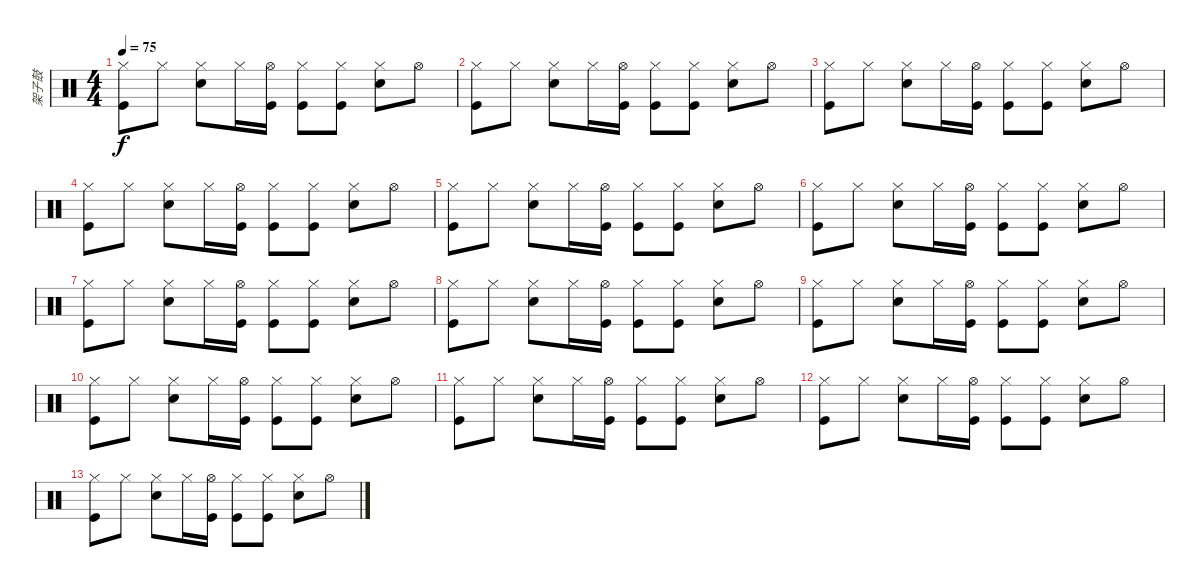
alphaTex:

\track ("架子鼓" "架子鼓") {instrument percussion}
\staff {score}
\articulation defaults
\ts (4 4)
\tempo 75
\clef neutral
\ks c
("Hi-Hat (closed)" "Kick (hit)").8{dy f} "Hi-Hat (closed)".8 ("Hi-Hat (closed)" "Snare (hit) 2").8 "Hi-Hat (closed)".16 ("Hi-Hat (open)" "Kick (hit)").16 ("Hi-Hat (closed)" "Kick (hit)").8 ("Hi-Hat (closed)" "Kick (hit)").8 ("Hi-Hat (closed)" "Snare (hit) 2").8 "Hi-Hat (open)".8 |
("Hi-Hat (closed)" "Kick (hit)").8 "Hi-Hat (closed)".8 ("Hi-Hat (closed)" "Snare (hit) 2").8 "Hi-Hat (closed)".16 ("Hi-Hat (open)" "Kick (hit)").16 ("Hi-Hat (closed)" "Kick (hit)").8 ("Hi-Hat (closed)" "Kick (hit)").8 ("Hi-Hat (closed)" "Snare (hit) 2").8 "Hi-Hat (open)".8 |
("Hi-Hat (closed)" "Kick (hit)").8 "Hi-Hat (closed)".8 ("Hi-Hat (closed)" "Snare (hit) 2").8 "Hi-Hat (closed)".16 ("Hi-Hat (open)" "Kick (hit)").16 ("Hi-Hat (closed)" "Kick (hit)").8 ("Hi-Hat (closed)" "Kick (hit)").8 ("Hi-Hat (closed)" "Snare (hit) 2").8 "Hi-Hat (open)".8 |
("Hi-Hat (closed)" "Kick (hit)").8 "Hi-Hat (closed)".8 ("Hi-Hat (closed)" "Snare (hit) 2").8 "Hi-Hat (closed)".16 ("Hi-Hat (open)" "Kick (hit)").16 ("Hi-Hat (closed)" "Kick (hit)").8 ("Hi-Hat (closed)" "Kick (hit)").8 ("Hi-Hat (closed)" "Snare (hit) 2").8 "Hi-Hat (open)".8 |
("Hi-Hat (closed)" "Kick (hit)").8 "Hi-Hat (closed)".8 ("Hi-Hat (closed)" "Snare (hit) 2").8 "Hi-Hat (closed)".16 ("Hi-Hat (open)" "Kick (hit)").16 ("Hi-Hat (closed)" "Kick (hit)").8 ("Hi-Hat (closed)" "Kick (hit)").8 ("Hi-Hat (closed)" "Snare (hit) 2").8 "Hi-Hat (open)".8 |
("Hi-Hat (closed)" "Kick (hit)").8 "Hi-Hat (closed)".8 ("Hi-Hat (closed)" "Snare (hit) 2").8 "Hi-Hat (closed)".16 ("Hi-Hat (open)" "Kick (hit)").16 ("Hi-Hat (closed)" "Kick (hit)").8 ("Hi-Hat (closed)" "Kick (hit)").8 ("Hi-Hat (closed)" "Snare (hit) 2").8 "Hi-Hat (open)".8 |
("Hi-Hat (closed)" "Kick (hit)").8 "Hi-Hat (closed)".8 ("Hi-Hat (closed)" "Snare (hit) 2").8 "Hi-Hat (closed)".16 ("Hi-Hat (open)" "Kick (hit)").16 ("Hi-Hat (closed)" "Kick (hit)").8 ("Hi-Hat (closed)" "Kick (hit)").8 ("Hi-Hat (closed)" "Snare (hit) 2").8 "Hi-Hat (open)".8 |
("Hi-Hat (closed)" "Kick (hit)").8 "Hi-Hat (closed)".8 ("Hi-Hat (closed)" "Snare (hit) 2").8 "Hi-Hat (closed)".16 ("Hi-Hat (open)" "Kick (hit)").16 ("Hi-Hat (closed)" "Kick (hit)").8 ("Hi-Hat (closed)" "Kick (hit)").8 ("Hi-Hat (closed)" "Snare (hit) 2").8 "Hi-Hat (open)".8 |
("Hi-Hat (closed)" "Kick (hit)").8 "Hi-Hat (closed)".8 ("Hi-Hat (closed)" "Snare (hit) 2").8 "Hi-Hat (closed)".16 ("Hi-Hat (open)" "Kick (hit)").16 ("Hi-Hat (closed)" "Kick (hit)").8 ("Hi-Hat (closed)" "Kick (hit)").8 ("Hi-Hat (closed)" "Snare (hit) 2").8 "Hi-Hat (open)".8 |
("Hi-Hat (closed)" "Kick (hit)").8 "Hi-Hat (closed)".8 ("Hi-Hat (closed)" "Snare (hit) 2").8 "Hi-Hat (closed)".16 ("Hi-Hat (open)" "Kick (hit)").16 ("Hi-Hat (closed)" "Kick (hit)").8 ("Hi-Hat (closed)" "Kick (hit)").8 ("Hi-Hat (closed)" "Snare (hit) 2").8 "Hi-Hat (open)".8 |
("Hi-Hat (closed)" "Kick (hit)").8 "Hi-Hat (closed)".8 ("Hi-Hat (closed)" "Snare (hit) 2").8 "Hi-Hat (closed)".16 ("Hi-Hat (open)" "Kick (hit)").16 ("Hi-Hat (closed)" "Kick (hit)").8 ("Hi-Hat (closed)" "Kick (hit)").8 ("Hi-Hat (closed)" "Snare (hit) 2").8 "Hi-Hat (open)".8 |
("Hi-Hat (closed)" "Kick (hit)").8 "Hi-Hat (closed)".8 ("Hi-Hat (closed)" "Snare (hit) 2").8 "Hi-Hat (closed)".16 ("Hi-Hat (open)" "Kick (hit)").16 ("Hi-Hat (closed)" "Kick (hit)").8 ("Hi-Hat (closed)" "Kick (hit)").8 ("Hi-Hat (closed)" "Snare (hit) 2").8 "Hi-Hat (open)".8 |
("Hi-Hat (closed)" "Kick (hit)").8 "Hi-Hat (closed)".8 ("Hi-Hat (closed)" "Snare (hit) 2").8 "Hi-Hat (closed)".16 ("Hi-Hat (open)" "Kick (hit)").16 ("Hi-Hat (closed)" "Kick (hit)").8 ("Hi-Hat (closed)" "Kick (hit)").8 ("Hi-Hat (closed)" "Snare (hit) 2").8 "Hi-Hat (open)".8
